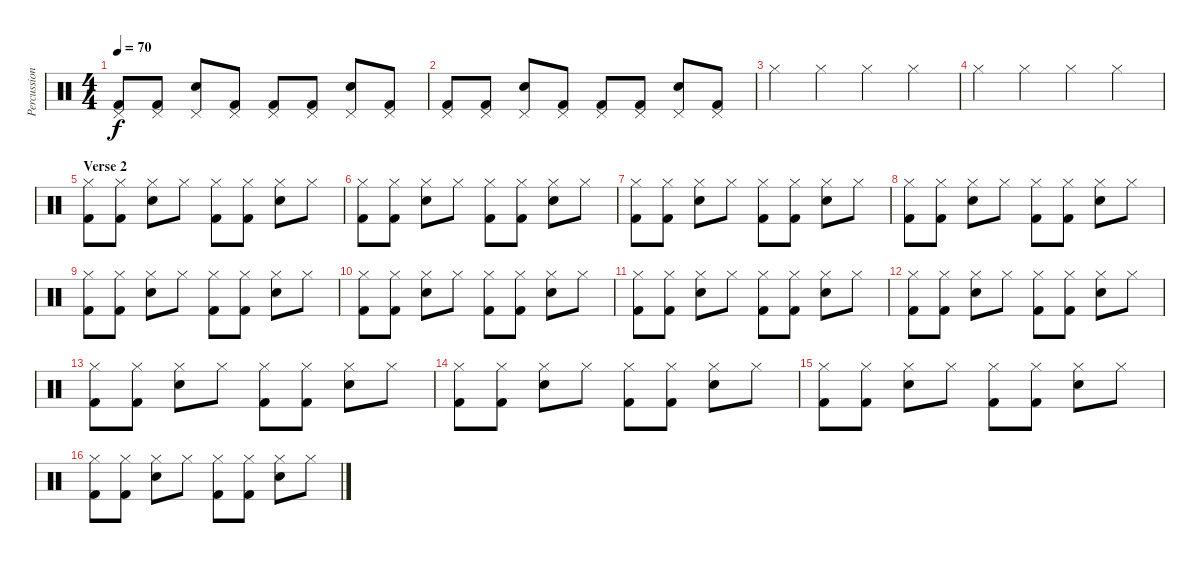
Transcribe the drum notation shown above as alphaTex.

\track ("Percussions" "Percussion") {instrument percussion}
\staff {score}
\articulation defaults
\ts (4 4)
\tempo 70
\clef neutral
\ks c
("Kick (hit) 2" "Pedal Hi-Hat (hit)").8{dy f} ("Kick (hit) 2" "Pedal Hi-Hat (hit)").8 ("Snare (hit) 2" "Pedal Hi-Hat (hit)").8 ("Kick (hit) 2" "Pedal Hi-Hat (hit)").8 ("Kick (hit) 2" "Pedal Hi-Hat (hit)").8 ("Kick (hit) 2" "Pedal Hi-Hat (hit)").8 ("Pedal Hi-Hat (hit)" "Snare (hit) 2").8 ("Kick (hit) 2" "Pedal Hi-Hat (hit)").8 |
("Kick (hit) 2" "Pedal Hi-Hat (hit)").8 ("Kick (hit) 2" "Pedal Hi-Hat (hit)").8 ("Snare (hit) 2" "Pedal Hi-Hat (hit)").8 ("Kick (hit) 2" "Pedal Hi-Hat (hit)").8 ("Kick (hit) 2" "Pedal Hi-Hat (hit)").8 ("Kick (hit) 2" "Pedal Hi-Hat (hit)").8 ("Pedal Hi-Hat (hit)" "Snare (hit) 2").8 ("Kick (hit) 2" "Pedal Hi-Hat (hit)").8 |
"Hi-Hat (closed)".4 "Hi-Hat (closed)".4 "Hi-Hat (closed)".4 "Hi-Hat (closed)".4 |
"Hi-Hat (closed)".4 "Hi-Hat (closed)".4 "Hi-Hat (closed)".4 "Hi-Hat (closed)".4 |
\section ("" "Verse 2")
("Kick (hit) 2" "Hi-Hat (closed)").8 ("Kick (hit) 2" "Hi-Hat (closed)").8 ("Electric Snare (hit)" "Hi-Hat (closed)").8 "Hi-Hat (closed)".8 ("Kick (hit) 2" "Hi-Hat (closed)").8 ("Kick (hit) 2" "Hi-Hat (closed)").8 ("Snare (hit) 2" "Hi-Hat (closed)").8 "Hi-Hat (closed)".8 |
("Kick (hit) 2" "Hi-Hat (closed)").8 ("Kick (hit) 2" "Hi-Hat (closed)").8 ("Electric Snare (hit)" "Hi-Hat (closed)").8 "Hi-Hat (closed)".8 ("Kick (hit) 2" "Hi-Hat (closed)").8 ("Kick (hit) 2" "Hi-Hat (closed)").8 ("Snare (hit) 2" "Hi-Hat (closed)").8 "Hi-Hat (closed)".8 |
("Kick (hit) 2" "Hi-Hat (closed)").8 ("Kick (hit) 2" "Hi-Hat (closed)").8 ("Electric Snare (hit)" "Hi-Hat (closed)").8 "Hi-Hat (closed)".8 ("Kick (hit) 2" "Hi-Hat (closed)").8 ("Kick (hit) 2" "Hi-Hat (closed)").8 ("Snare (hit) 2" "Hi-Hat (closed)").8 "Hi-Hat (closed)".8 |
("Kick (hit) 2" "Hi-Hat (closed)").8 ("Kick (hit) 2" "Hi-Hat (closed)").8 ("Electric Snare (hit)" "Hi-Hat (closed)").8 "Hi-Hat (closed)".8 ("Kick (hit) 2" "Hi-Hat (closed)").8 ("Kick (hit) 2" "Hi-Hat (closed)").8 ("Snare (hit) 2" "Hi-Hat (closed)").8 "Hi-Hat (closed)".8 |
("Kick (hit) 2" "Hi-Hat (closed)").8 ("Kick (hit) 2" "Hi-Hat (closed)").8 ("Electric Snare (hit)" "Hi-Hat (closed)").8 "Hi-Hat (closed)".8 ("Kick (hit) 2" "Hi-Hat (closed)").8 ("Kick (hit) 2" "Hi-Hat (closed)").8 ("Snare (hit) 2" "Hi-Hat (closed)").8 "Hi-Hat (closed)".8 |
("Kick (hit) 2" "Hi-Hat (closed)").8 ("Kick (hit) 2" "Hi-Hat (closed)").8 ("Electric Snare (hit)" "Hi-Hat (closed)").8 "Hi-Hat (closed)".8 ("Kick (hit) 2" "Hi-Hat (closed)").8 ("Kick (hit) 2" "Hi-Hat (closed)").8 ("Snare (hit) 2" "Hi-Hat (closed)").8 "Hi-Hat (closed)".8 |
("Kick (hit) 2" "Hi-Hat (closed)").8 ("Kick (hit) 2" "Hi-Hat (closed)").8 ("Electric Snare (hit)" "Hi-Hat (closed)").8 "Hi-Hat (closed)".8 ("Kick (hit) 2" "Hi-Hat (closed)").8 ("Kick (hit) 2" "Hi-Hat (closed)").8 ("Snare (hit) 2" "Hi-Hat (closed)").8 "Hi-Hat (closed)".8 |
("Kick (hit) 2" "Hi-Hat (closed)").8 ("Kick (hit) 2" "Hi-Hat (closed)").8 ("Electric Snare (hit)" "Hi-Hat (closed)").8 "Hi-Hat (closed)".8 ("Kick (hit) 2" "Hi-Hat (closed)").8 ("Kick (hit) 2" "Hi-Hat (closed)").8 ("Snare (hit) 2" "Hi-Hat (closed)").8 "Hi-Hat (closed)".8 |
("Kick (hit) 2" "Hi-Hat (closed)").8 ("Kick (hit) 2" "Hi-Hat (closed)").8 ("Electric Snare (hit)" "Hi-Hat (closed)").8 "Hi-Hat (closed)".8 ("Kick (hit) 2" "Hi-Hat (closed)").8 ("Kick (hit) 2" "Hi-Hat (closed)").8 ("Snare (hit) 2" "Hi-Hat (closed)").8 "Hi-Hat (closed)".8 |
("Kick (hit) 2" "Hi-Hat (closed)").8 ("Kick (hit) 2" "Hi-Hat (closed)").8 ("Electric Snare (hit)" "Hi-Hat (closed)").8 "Hi-Hat (closed)".8 ("Kick (hit) 2" "Hi-Hat (closed)").8 ("Kick (hit) 2" "Hi-Hat (closed)").8 ("Snare (hit) 2" "Hi-Hat (closed)").8 "Hi-Hat (closed)".8 |
("Kick (hit) 2" "Hi-Hat (closed)").8 ("Kick (hit) 2" "Hi-Hat (closed)").8 ("Electric Snare (hit)" "Hi-Hat (closed)").8 "Hi-Hat (closed)".8 ("Kick (hit) 2" "Hi-Hat (closed)").8 ("Kick (hit) 2" "Hi-Hat (closed)").8 ("Snare (hit) 2" "Hi-Hat (closed)").8 "Hi-Hat (closed)".8 |
("Kick (hit) 2" "Hi-Hat (closed)").8 ("Kick (hit) 2" "Hi-Hat (closed)").8 ("Electric Snare (hit)" "Hi-Hat (closed)").8 "Hi-Hat (closed)".8 ("Kick (hit) 2" "Hi-Hat (closed)").8 ("Kick (hit) 2" "Hi-Hat (closed)").8 ("Snare (hit) 2" "Hi-Hat (closed)").8 "Hi-Hat (closed)".8
